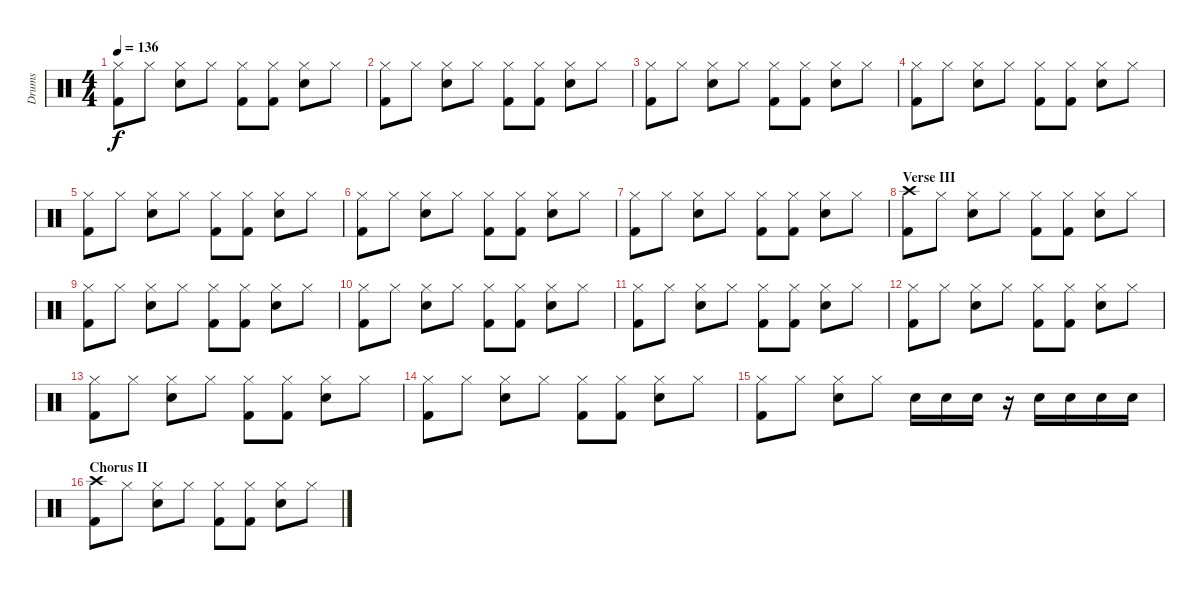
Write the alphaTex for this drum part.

\track ("Drums" "Drums") {instrument percussion}
\staff {score}
\articulation defaults
\ts (4 4)
\tempo 136
\clef neutral
\ks c
("Hi-Hat (closed)" "Kick (hit) 2").8{dy f} "Hi-Hat (closed)".8 ("Hi-Hat (closed)" "Snare (hit) 2").8 "Hi-Hat (closed)".8 ("Hi-Hat (closed)" "Kick (hit) 2").8 ("Hi-Hat (closed)" "Kick (hit) 2").8 ("Hi-Hat (closed)" "Snare (hit) 2").8 "Hi-Hat (closed)".8 |
("Hi-Hat (closed)" "Kick (hit) 2").8 "Hi-Hat (closed)".8 ("Hi-Hat (closed)" "Snare (hit) 2").8 "Hi-Hat (closed)".8 ("Hi-Hat (closed)" "Kick (hit) 2").8 ("Hi-Hat (closed)" "Kick (hit) 2").8 ("Hi-Hat (closed)" "Snare (hit) 2").8 "Hi-Hat (closed)".8 |
("Hi-Hat (closed)" "Kick (hit) 2").8 "Hi-Hat (closed)".8 ("Hi-Hat (closed)" "Snare (hit) 2").8 "Hi-Hat (closed)".8 ("Hi-Hat (closed)" "Kick (hit) 2").8 ("Hi-Hat (closed)" "Kick (hit) 2").8 ("Hi-Hat (closed)" "Snare (hit) 2").8 "Hi-Hat (closed)".8 |
("Hi-Hat (closed)" "Kick (hit) 2").8 "Hi-Hat (closed)".8 ("Hi-Hat (closed)" "Snare (hit) 2").8 "Hi-Hat (closed)".8 ("Hi-Hat (closed)" "Kick (hit) 2").8 ("Hi-Hat (closed)" "Kick (hit) 2").8 ("Hi-Hat (closed)" "Snare (hit) 2").8 "Hi-Hat (closed)".8 |
("Hi-Hat (closed)" "Kick (hit) 2").8 "Hi-Hat (closed)".8 ("Hi-Hat (closed)" "Snare (hit) 2").8 "Hi-Hat (closed)".8 ("Hi-Hat (closed)" "Kick (hit) 2").8 ("Hi-Hat (closed)" "Kick (hit) 2").8 ("Hi-Hat (closed)" "Snare (hit) 2").8 "Hi-Hat (closed)".8 |
("Hi-Hat (closed)" "Kick (hit) 2").8 "Hi-Hat (closed)".8 ("Hi-Hat (closed)" "Snare (hit) 2").8 "Hi-Hat (closed)".8 ("Hi-Hat (closed)" "Kick (hit) 2").8 ("Hi-Hat (closed)" "Kick (hit) 2").8 ("Hi-Hat (closed)" "Snare (hit) 2").8 "Hi-Hat (closed)".8 |
("Hi-Hat (closed)" "Kick (hit) 2").8 "Hi-Hat (closed)".8 ("Hi-Hat (closed)" "Snare (hit) 2").8 "Hi-Hat (closed)".8 ("Hi-Hat (closed)" "Kick (hit) 2").8 ("Hi-Hat (closed)" "Kick (hit) 2").8 ("Hi-Hat (closed)" "Snare (hit) 2").8 "Hi-Hat (closed)".8 |
\section ("" "Verse III")
("Crash high (hit)" "Kick (hit) 2").8 "Hi-Hat (closed)".8 ("Hi-Hat (closed)" "Snare (hit) 2").8 "Hi-Hat (closed)".8 ("Hi-Hat (closed)" "Kick (hit) 2").8 ("Hi-Hat (closed)" "Kick (hit) 2").8 ("Hi-Hat (closed)" "Snare (hit) 2").8 "Hi-Hat (closed)".8 |
("Hi-Hat (closed)" "Kick (hit) 2").8 "Hi-Hat (closed)".8 ("Hi-Hat (closed)" "Snare (hit) 2").8 "Hi-Hat (closed)".8 ("Hi-Hat (closed)" "Kick (hit) 2").8 ("Hi-Hat (closed)" "Kick (hit) 2").8 ("Hi-Hat (closed)" "Snare (hit) 2").8 "Hi-Hat (closed)".8 |
("Hi-Hat (closed)" "Kick (hit) 2").8 "Hi-Hat (closed)".8 ("Hi-Hat (closed)" "Snare (hit) 2").8 "Hi-Hat (closed)".8 ("Hi-Hat (closed)" "Kick (hit) 2").8 ("Hi-Hat (closed)" "Kick (hit) 2").8 ("Hi-Hat (closed)" "Snare (hit) 2").8 "Hi-Hat (closed)".8 |
("Hi-Hat (closed)" "Kick (hit) 2").8 "Hi-Hat (closed)".8 ("Hi-Hat (closed)" "Snare (hit) 2").8 "Hi-Hat (closed)".8 ("Hi-Hat (closed)" "Kick (hit) 2").8 ("Hi-Hat (closed)" "Kick (hit) 2").8 ("Hi-Hat (closed)" "Snare (hit) 2").8 "Hi-Hat (closed)".8 |
("Hi-Hat (closed)" "Kick (hit) 2").8 "Hi-Hat (closed)".8 ("Hi-Hat (closed)" "Snare (hit) 2").8 "Hi-Hat (closed)".8 ("Hi-Hat (closed)" "Kick (hit) 2").8 ("Hi-Hat (closed)" "Kick (hit) 2").8 ("Hi-Hat (closed)" "Snare (hit) 2").8 "Hi-Hat (closed)".8 |
("Hi-Hat (closed)" "Kick (hit) 2").8 "Hi-Hat (closed)".8 ("Hi-Hat (closed)" "Snare (hit) 2").8 "Hi-Hat (closed)".8 ("Hi-Hat (closed)" "Kick (hit) 2").8 ("Hi-Hat (closed)" "Kick (hit) 2").8 ("Hi-Hat (closed)" "Snare (hit) 2").8 "Hi-Hat (closed)".8 |
("Hi-Hat (closed)" "Kick (hit) 2").8 "Hi-Hat (closed)".8 ("Hi-Hat (closed)" "Snare (hit) 2").8 "Hi-Hat (closed)".8 ("Hi-Hat (closed)" "Kick (hit) 2").8 ("Hi-Hat (closed)" "Kick (hit) 2").8 ("Hi-Hat (closed)" "Snare (hit) 2").8 "Hi-Hat (closed)".8 |
("Hi-Hat (closed)" "Kick (hit) 2").8 "Hi-Hat (closed)".8 ("Hi-Hat (closed)" "Snare (hit) 2").8 "Hi-Hat (closed)".8 "Snare (hit) 2".16 "Snare (hit) 2".16 "Snare (hit) 2".16 r.16 "Snare (hit) 2".16 "Snare (hit) 2".16 "Snare (hit) 2".16 "Snare (hit) 2".16 |
\section ("" "Chorus II")
("Crash high (hit)" "Kick (hit) 2").8 "Hi-Hat (closed)".8 ("Hi-Hat (closed)" "Snare (hit) 2").8 "Hi-Hat (closed)".8 ("Hi-Hat (closed)" "Kick (hit) 2").8 ("Hi-Hat (closed)" "Kick (hit) 2").8 ("Hi-Hat (closed)" "Snare (hit) 2").8 "Hi-Hat (closed)".8
